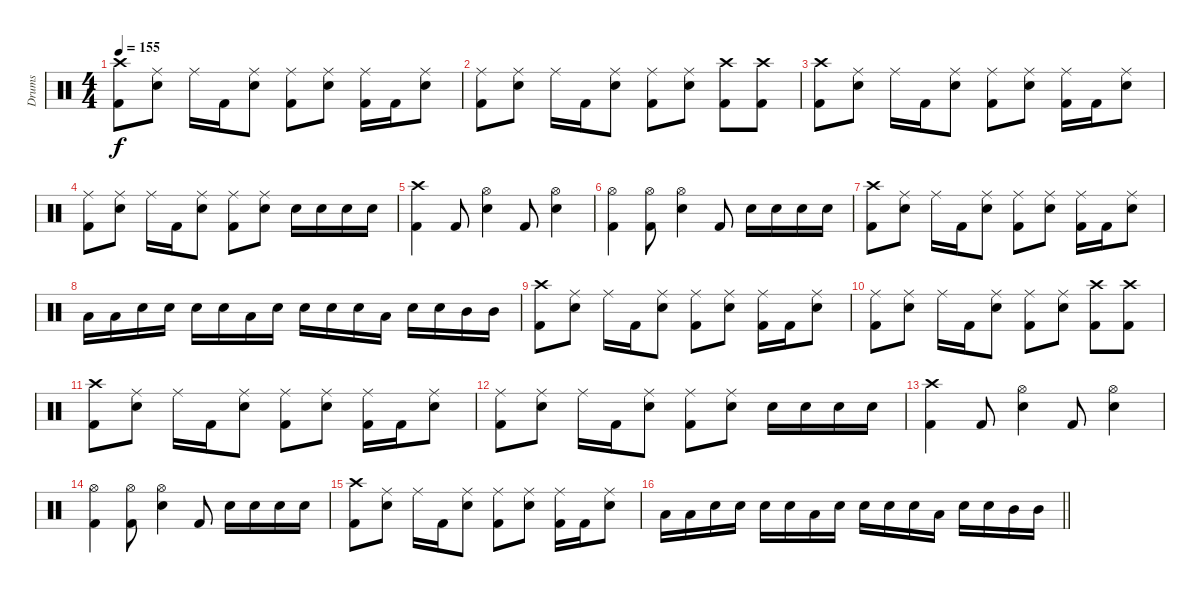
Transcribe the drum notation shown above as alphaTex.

\track ("Drums" "Drums") {instrument percussion}
\staff {score}
\articulation defaults
\ts (4 4)
\tempo 155
\clef neutral
\ks c
("Crash high (hit)" "Kick (hit) 2").8{dy f} ("Ride (middle)" "Electric Snare (hit)").8 "Ride (middle)".16 "Kick (hit) 2".16 ("Ride (middle)" "Electric Snare (hit)").8 ("Ride (middle)" "Kick (hit) 2").8 ("Ride (middle)" "Electric Snare (hit)").8 ("Ride (middle)" "Kick (hit) 2").16 "Kick (hit) 2".16 ("Ride (middle)" "Electric Snare (hit)").8 |
("Ride (middle)" "Kick (hit) 2").8 ("Ride (middle)" "Electric Snare (hit)").8 "Ride (middle)".16 "Kick (hit) 2".16 ("Ride (middle)" "Electric Snare (hit)").8 ("Ride (middle)" "Kick (hit) 2").8 ("Ride (middle)" "Electric Snare (hit)").8 ("Crash high (hit)" "Kick (hit) 2").8 ("Crash high (hit)" "Kick (hit) 2").8 |
("Crash high (hit)" "Kick (hit) 2").8 ("Ride (middle)" "Electric Snare (hit)").8 "Ride (middle)".16 "Kick (hit) 2".16 ("Ride (middle)" "Electric Snare (hit)").8 ("Ride (middle)" "Kick (hit) 2").8 ("Ride (middle)" "Electric Snare (hit)").8 ("Ride (middle)" "Kick (hit) 2").16 "Kick (hit) 2".16 ("Ride (middle)" "Electric Snare (hit)").8 |
("Ride (middle)" "Kick (hit) 2").8 ("Ride (middle)" "Electric Snare (hit)").8 "Ride (middle)".16 "Kick (hit) 2".16 ("Ride (middle)" "Electric Snare (hit)").8 ("Ride (middle)" "Kick (hit) 2").8 ("Ride (middle)" "Electric Snare (hit)").8 "Electric Snare (hit)".16 "Electric Snare (hit)".16 "Electric Snare (hit)".16 "Electric Snare (hit)".16 |
("Crash high (hit)" "Kick (hit) 2").4 "Kick (hit) 2".8 ("Hi-Hat (open)" "Electric Snare (hit)").4 "Kick (hit) 2".8 ("Hi-Hat (open)" "Electric Snare (hit)").4 |
("Hi-Hat (open)" "Kick (hit) 2").4 ("Hi-Hat (open)" "Kick (hit) 2").8 ("Hi-Hat (open)" "Electric Snare (hit)").4 "Kick (hit) 2".8 "Electric Snare (hit)".16 "Electric Snare (hit)".16 "Electric Snare (hit)".16 "Electric Snare (hit)".16 |
("Crash high (hit)" "Kick (hit) 2").8 ("Ride (middle)" "Electric Snare (hit)").8 "Ride (middle)".16 "Kick (hit) 2".16 ("Ride (middle)" "Electric Snare (hit)").8 ("Ride (middle)" "Kick (hit) 2").8 ("Ride (middle)" "Electric Snare (hit)").8 ("Ride (middle)" "Kick (hit) 2").16 "Kick (hit) 2".16 ("Ride (middle)" "Electric Snare (hit)").8 |
"Low Floor Tom (hit)".16 "Low Floor Tom (hit)".16 "Electric Snare (hit)".16 "Electric Snare (hit)".16 "Electric Snare (hit)".16 "Electric Snare (hit)".16 "Low Floor Tom (hit)".16 "Electric Snare (hit)".16 "Electric Snare (hit)".16 "Electric Snare (hit)".16 "Electric Snare (hit)".16 "Low Floor Tom (hit)".16 "Electric Snare (hit)".16 "Electric Snare (hit)".16 "Mid Tom (hit)".16 "Mid Tom (hit)".16 |
("Crash high (hit)" "Kick (hit) 2").8 ("Ride (middle)" "Electric Snare (hit)").8 "Ride (middle)".16 "Kick (hit) 2".16 ("Ride (middle)" "Electric Snare (hit)").8 ("Ride (middle)" "Kick (hit) 2").8 ("Ride (middle)" "Electric Snare (hit)").8 ("Ride (middle)" "Kick (hit) 2").16 "Kick (hit) 2".16 ("Ride (middle)" "Electric Snare (hit)").8 |
("Ride (middle)" "Kick (hit) 2").8 ("Ride (middle)" "Electric Snare (hit)").8 "Ride (middle)".16 "Kick (hit) 2".16 ("Ride (middle)" "Electric Snare (hit)").8 ("Ride (middle)" "Kick (hit) 2").8 ("Ride (middle)" "Electric Snare (hit)").8 ("Crash high (hit)" "Kick (hit) 2").8 ("Crash high (hit)" "Kick (hit) 2").8 |
("Crash high (hit)" "Kick (hit) 2").8 ("Ride (middle)" "Electric Snare (hit)").8 "Ride (middle)".16 "Kick (hit) 2".16 ("Ride (middle)" "Electric Snare (hit)").8 ("Ride (middle)" "Kick (hit) 2").8 ("Ride (middle)" "Electric Snare (hit)").8 ("Ride (middle)" "Kick (hit) 2").16 "Kick (hit) 2".16 ("Ride (middle)" "Electric Snare (hit)").8 |
("Ride (middle)" "Kick (hit) 2").8 ("Ride (middle)" "Electric Snare (hit)").8 "Ride (middle)".16 "Kick (hit) 2".16 ("Ride (middle)" "Electric Snare (hit)").8 ("Ride (middle)" "Kick (hit) 2").8 ("Ride (middle)" "Electric Snare (hit)").8 "Electric Snare (hit)".16 "Electric Snare (hit)".16 "Electric Snare (hit)".16 "Electric Snare (hit)".16 |
("Crash high (hit)" "Kick (hit) 2").4 "Kick (hit) 2".8 ("Hi-Hat (open)" "Electric Snare (hit)").4 "Kick (hit) 2".8 ("Hi-Hat (open)" "Electric Snare (hit)").4 |
("Hi-Hat (open)" "Kick (hit) 2").4 ("Hi-Hat (open)" "Kick (hit) 2").8 ("Hi-Hat (open)" "Electric Snare (hit)").4 "Kick (hit) 2".8 "Electric Snare (hit)".16 "Electric Snare (hit)".16 "Electric Snare (hit)".16 "Electric Snare (hit)".16 |
("Crash high (hit)" "Kick (hit) 2").8 ("Ride (middle)" "Electric Snare (hit)").8 "Ride (middle)".16 "Kick (hit) 2".16 ("Ride (middle)" "Electric Snare (hit)").8 ("Ride (middle)" "Kick (hit) 2").8 ("Ride (middle)" "Electric Snare (hit)").8 ("Ride (middle)" "Kick (hit) 2").16 "Kick (hit) 2".16 ("Ride (middle)" "Electric Snare (hit)").8 |
\barLineRight lightlight "Low Floor Tom (hit)".16 "Low Floor Tom (hit)".16 "Electric Snare (hit)".16 "Electric Snare (hit)".16 "Electric Snare (hit)".16 "Electric Snare (hit)".16 "Low Floor Tom (hit)".16 "Electric Snare (hit)".16 "Electric Snare (hit)".16 "Electric Snare (hit)".16 "Electric Snare (hit)".16 "Low Floor Tom (hit)".16 "Electric Snare (hit)".16 "Electric Snare (hit)".16 "Mid Tom (hit)".16 "Mid Tom (hit)".16
